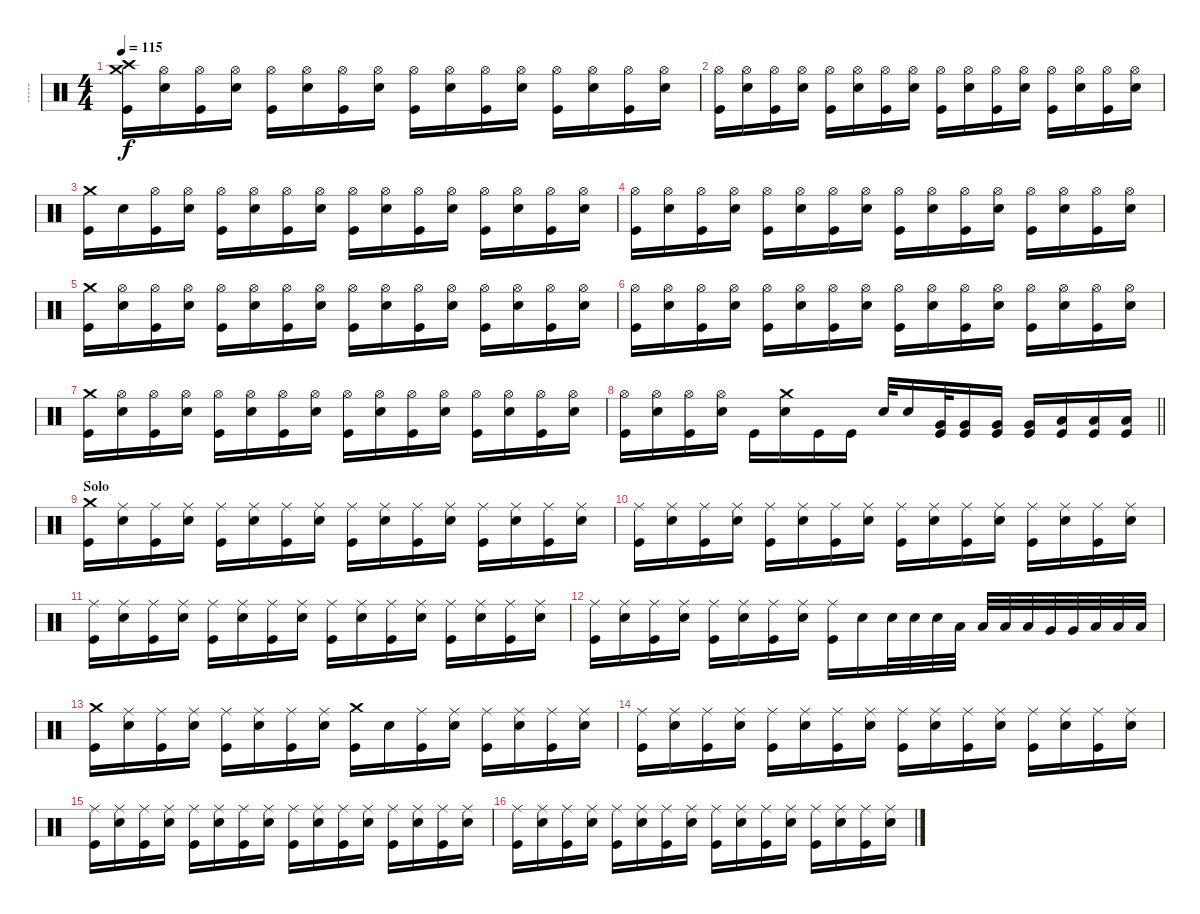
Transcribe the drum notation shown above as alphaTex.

\track ("-----" "-----") {instrument percussion}
\staff {score}
\articulation defaults
\ts (4 4)
\section ("" "")
\tempo 115
\clef neutral
\ks c
("Crash medium (hit)" "Crash high (hit)" "Kick (hit)").16{dy f} ("Hi-Hat (open)" "Electric Snare (hit)").16 ("Hi-Hat (open)" "Kick (hit)").16 ("Hi-Hat (open)" "Electric Snare (hit)").16 ("Hi-Hat (open)" "Kick (hit)").16 ("Hi-Hat (open)" "Electric Snare (hit)").16 ("Hi-Hat (open)" "Kick (hit)").16 ("Hi-Hat (open)" "Electric Snare (hit)").16 ("Hi-Hat (open)" "Kick (hit)").16 ("Hi-Hat (open)" "Electric Snare (hit)").16 ("Hi-Hat (open)" "Kick (hit)").16 ("Hi-Hat (open)" "Electric Snare (hit)").16 ("Hi-Hat (open)" "Kick (hit)").16 ("Hi-Hat (open)" "Electric Snare (hit)").16 ("Hi-Hat (open)" "Kick (hit)").16 ("Hi-Hat (open)" "Electric Snare (hit)").16 |
("Hi-Hat (open)" "Kick (hit)").16 ("Hi-Hat (open)" "Electric Snare (hit)").16 ("Hi-Hat (open)" "Kick (hit)").16 ("Hi-Hat (open)" "Electric Snare (hit)").16 ("Hi-Hat (open)" "Kick (hit)").16 ("Hi-Hat (open)" "Electric Snare (hit)").16 ("Hi-Hat (open)" "Kick (hit)").16 ("Hi-Hat (open)" "Electric Snare (hit)").16 ("Hi-Hat (open)" "Kick (hit)").16 ("Hi-Hat (open)" "Electric Snare (hit)").16 ("Hi-Hat (open)" "Kick (hit)").16 ("Hi-Hat (open)" "Electric Snare (hit)").16 ("Hi-Hat (open)" "Kick (hit)").16 ("Hi-Hat (open)" "Electric Snare (hit)").16 ("Hi-Hat (open)" "Kick (hit)").16 ("Hi-Hat (open)" "Electric Snare (hit)").16 |
("Crash medium (hit)" "Kick (hit)").16 "Electric Snare (hit)".16 ("Hi-Hat (open)" "Kick (hit)").16 ("Hi-Hat (open)" "Electric Snare (hit)").16 ("Hi-Hat (open)" "Kick (hit)").16 ("Hi-Hat (open)" "Electric Snare (hit)").16 ("Hi-Hat (open)" "Kick (hit)").16 ("Hi-Hat (open)" "Electric Snare (hit)").16 ("Hi-Hat (open)" "Kick (hit)").16 ("Hi-Hat (open)" "Electric Snare (hit)").16 ("Hi-Hat (open)" "Kick (hit)").16 ("Hi-Hat (open)" "Electric Snare (hit)").16 ("Hi-Hat (open)" "Kick (hit)").16 ("Hi-Hat (open)" "Electric Snare (hit)").16 ("Hi-Hat (open)" "Kick (hit)").16 ("Hi-Hat (open)" "Electric Snare (hit)").16 |
("Hi-Hat (open)" "Kick (hit)").16 ("Hi-Hat (open)" "Electric Snare (hit)").16 ("Hi-Hat (open)" "Kick (hit)").16 ("Hi-Hat (open)" "Electric Snare (hit)").16 ("Hi-Hat (open)" "Kick (hit)").16 ("Hi-Hat (open)" "Electric Snare (hit)").16 ("Hi-Hat (open)" "Kick (hit)").16 ("Hi-Hat (open)" "Electric Snare (hit)").16 ("Hi-Hat (open)" "Kick (hit)").16 ("Hi-Hat (open)" "Electric Snare (hit)").16 ("Hi-Hat (open)" "Kick (hit)").16 ("Hi-Hat (open)" "Electric Snare (hit)").16 ("Hi-Hat (open)" "Kick (hit)").16 ("Hi-Hat (open)" "Electric Snare (hit)").16 ("Hi-Hat (open)" "Kick (hit)").16 ("Hi-Hat (open)" "Electric Snare (hit)").16 |
("Crash medium (hit)" "Kick (hit)").16 ("Hi-Hat (open)" "Electric Snare (hit)").16 ("Hi-Hat (open)" "Kick (hit)").16 ("Hi-Hat (open)" "Electric Snare (hit)").16 ("Hi-Hat (open)" "Kick (hit)").16 ("Hi-Hat (open)" "Electric Snare (hit)").16 ("Hi-Hat (open)" "Kick (hit)").16 ("Hi-Hat (open)" "Electric Snare (hit)").16 ("Hi-Hat (open)" "Kick (hit)").16 ("Hi-Hat (open)" "Electric Snare (hit)").16 ("Hi-Hat (open)" "Kick (hit)").16 ("Hi-Hat (open)" "Electric Snare (hit)").16 ("Hi-Hat (open)" "Kick (hit)").16 ("Hi-Hat (open)" "Electric Snare (hit)").16 ("Hi-Hat (open)" "Kick (hit)").16 ("Hi-Hat (open)" "Electric Snare (hit)").16 |
("Hi-Hat (open)" "Kick (hit)").16 ("Hi-Hat (open)" "Electric Snare (hit)").16 ("Hi-Hat (open)" "Kick (hit)").16 ("Hi-Hat (open)" "Electric Snare (hit)").16 ("Hi-Hat (open)" "Kick (hit)").16 ("Hi-Hat (open)" "Electric Snare (hit)").16 ("Hi-Hat (open)" "Kick (hit)").16 ("Hi-Hat (open)" "Electric Snare (hit)").16 ("Hi-Hat (open)" "Kick (hit)").16 ("Hi-Hat (open)" "Electric Snare (hit)").16 ("Hi-Hat (open)" "Kick (hit)").16 ("Hi-Hat (open)" "Electric Snare (hit)").16 ("Hi-Hat (open)" "Kick (hit)").16 ("Hi-Hat (open)" "Electric Snare (hit)").16 ("Hi-Hat (open)" "Kick (hit)").16 ("Hi-Hat (open)" "Electric Snare (hit)").16 |
("Crash medium (hit)" "Kick (hit)").16 ("Hi-Hat (open)" "Electric Snare (hit)").16 ("Hi-Hat (open)" "Kick (hit)").16 ("Hi-Hat (open)" "Electric Snare (hit)").16 ("Hi-Hat (open)" "Kick (hit)").16 ("Hi-Hat (open)" "Electric Snare (hit)").16 ("Hi-Hat (open)" "Kick (hit)").16 ("Hi-Hat (open)" "Electric Snare (hit)").16 ("Hi-Hat (open)" "Kick (hit)").16 ("Hi-Hat (open)" "Electric Snare (hit)").16 ("Hi-Hat (open)" "Kick (hit)").16 ("Hi-Hat (open)" "Electric Snare (hit)").16 ("Hi-Hat (open)" "Kick (hit)").16 ("Hi-Hat (open)" "Electric Snare (hit)").16 ("Hi-Hat (open)" "Kick (hit)").16 ("Hi-Hat (open)" "Electric Snare (hit)").16 |
\barLineRight lightlight
("Hi-Hat (open)" "Kick (hit)").16 ("Hi-Hat (open)" "Electric Snare (hit)").16 ("Hi-Hat (open)" "Kick (hit)").16 ("Hi-Hat (open)" "Electric Snare (hit)").16 "Kick (hit)".16 ("Crash medium (hit)" "Electric Snare (hit)").16 "Kick (hit)".16 "Kick (hit)".16 "Electric Snare (hit)".32 "Electric Snare (hit)".16 ("Very Low Tom (hit)" "Kick (hit)").32 ("Very Low Tom (hit)" "Kick (hit)").16 ("Very Low Tom (hit)" "Kick (hit)").16 ("Very Low Tom (hit)" "Kick (hit)").16 ("Low Tom (hit)" "Kick (hit)").16 ("Low Tom (hit)" "Kick (hit)").16 ("Low Tom (hit)" "Kick (hit)").16 |
\section ("" "Solo")
("Crash medium (hit)" "Kick (hit)").16 ("Ride (middle)" "Electric Snare (hit)").16 ("Ride (middle)" "Kick (hit)").16 ("Ride (middle)" "Electric Snare (hit)").16 ("Ride (middle)" "Kick (hit)").16 ("Ride (middle)" "Electric Snare (hit)").16 ("Ride (middle)" "Kick (hit)").16 ("Ride (middle)" "Electric Snare (hit)").16 ("Ride (middle)" "Kick (hit)").16 ("Ride (middle)" "Electric Snare (hit)").16 ("Ride (middle)" "Kick (hit)").16 ("Ride (middle)" "Electric Snare (hit)").16 ("Ride (middle)" "Kick (hit)").16 ("Ride (middle)" "Electric Snare (hit)").16 ("Ride (middle)" "Kick (hit)").16 ("Ride (middle)" "Electric Snare (hit)").16 |
("Ride (middle)" "Kick (hit)").16 ("Ride (middle)" "Electric Snare (hit)").16 ("Ride (middle)" "Kick (hit)").16 ("Ride (middle)" "Electric Snare (hit)").16 ("Ride (middle)" "Kick (hit)").16 ("Ride (middle)" "Electric Snare (hit)").16 ("Ride (middle)" "Kick (hit)").16 ("Ride (middle)" "Electric Snare (hit)").16 ("Ride (middle)" "Kick (hit)").16 ("Ride (middle)" "Electric Snare (hit)").16 ("Ride (middle)" "Kick (hit)").16 ("Ride (middle)" "Electric Snare (hit)").16 ("Ride (middle)" "Kick (hit)").16 ("Ride (middle)" "Electric Snare (hit)").16 ("Ride (middle)" "Kick (hit)").16 ("Ride (middle)" "Electric Snare (hit)").16 |
("Ride (middle)" "Kick (hit)").16 ("Ride (middle)" "Electric Snare (hit)").16 ("Ride (middle)" "Kick (hit)").16 ("Ride (middle)" "Electric Snare (hit)").16 ("Ride (middle)" "Kick (hit)").16 ("Ride (middle)" "Electric Snare (hit)").16 ("Ride (middle)" "Kick (hit)").16 ("Ride (middle)" "Electric Snare (hit)").16 ("Ride (middle)" "Kick (hit)").16 ("Ride (middle)" "Electric Snare (hit)").16 ("Ride (middle)" "Kick (hit)").16 ("Ride (middle)" "Electric Snare (hit)").16 ("Ride (middle)" "Kick (hit)").16 ("Ride (middle)" "Electric Snare (hit)").16 ("Ride (middle)" "Kick (hit)").16 ("Ride (middle)" "Electric Snare (hit)").16 |
("Ride (middle)" "Kick (hit)").16 ("Ride (middle)" "Electric Snare (hit)").16 ("Ride (middle)" "Kick (hit)").16 ("Ride (middle)" "Electric Snare (hit)").16 ("Ride (middle)" "Kick (hit)").16 ("Ride (middle)" "Electric Snare (hit)").16 ("Ride (middle)" "Kick (hit)").16 ("Ride (middle)" "Electric Snare (hit)").16 ("Ride (middle)" "Kick (hit)").16 "Electric Snare (hit)".16 "Electric Snare (hit)".32 "Electric Snare (hit)".32 "Electric Snare (hit)".32 "Low Tom (hit)".32 "Low Tom (hit)".32 "Low Tom (hit)".32 "Low Tom (hit)".32 "Very Low Tom (hit)".32 "Very Low Tom (hit)".32 "Low Floor Tom (hit)".32 "Low Floor Tom (hit)".32 "Low Floor Tom (hit)".32 |
("Crash medium (hit)" "Kick (hit)").16 ("Ride (middle)" "Electric Snare (hit)").16 ("Ride (middle)" "Kick (hit)").16 ("Ride (middle)" "Electric Snare (hit)").16 ("Ride (middle)" "Kick (hit)").16 ("Ride (middle)" "Electric Snare (hit)").16 ("Ride (middle)" "Kick (hit)").16 ("Ride (middle)" "Electric Snare (hit)").16 ("Crash medium (hit)" "Kick (hit)").16 "Electric Snare (hit)".16 ("Ride (middle)" "Kick (hit)").16 ("Ride (middle)" "Electric Snare (hit)").16 ("Ride (middle)" "Kick (hit)").16 ("Ride (middle)" "Electric Snare (hit)").16 ("Ride (middle)" "Kick (hit)").16 ("Ride (middle)" "Electric Snare (hit)").16 |
("Ride (middle)" "Kick (hit)").16 ("Ride (middle)" "Electric Snare (hit)").16 ("Ride (middle)" "Kick (hit)").16 ("Ride (middle)" "Electric Snare (hit)").16 ("Ride (middle)" "Kick (hit)").16 ("Ride (middle)" "Electric Snare (hit)").16 ("Ride (middle)" "Kick (hit)").16 ("Ride (middle)" "Electric Snare (hit)").16 ("Ride (middle)" "Kick (hit)").16 ("Ride (middle)" "Electric Snare (hit)").16 ("Ride (middle)" "Kick (hit)").16 ("Ride (middle)" "Electric Snare (hit)").16 ("Ride (middle)" "Kick (hit)").16 ("Ride (middle)" "Electric Snare (hit)").16 ("Ride (middle)" "Kick (hit)").16 ("Ride (middle)" "Electric Snare (hit)").16 |
("Ride (middle)" "Kick (hit)").16 ("Ride (middle)" "Electric Snare (hit)").16 ("Ride (middle)" "Kick (hit)").16 ("Ride (middle)" "Electric Snare (hit)").16 ("Ride (middle)" "Kick (hit)").16 ("Ride (middle)" "Electric Snare (hit)").16 ("Ride (middle)" "Kick (hit)").16 ("Ride (middle)" "Electric Snare (hit)").16 ("Ride (middle)" "Kick (hit)").16 ("Ride (middle)" "Electric Snare (hit)").16 ("Ride (middle)" "Kick (hit)").16 ("Ride (middle)" "Electric Snare (hit)").16 ("Ride (middle)" "Kick (hit)").16 ("Ride (middle)" "Electric Snare (hit)").16 ("Ride (middle)" "Kick (hit)").16 ("Ride (middle)" "Electric Snare (hit)").16 |
("Ride (middle)" "Kick (hit)").16 ("Ride (middle)" "Electric Snare (hit)").16 ("Ride (middle)" "Kick (hit)").16 ("Ride (middle)" "Electric Snare (hit)").16 ("Ride (middle)" "Kick (hit)").16 ("Ride (middle)" "Electric Snare (hit)").16 ("Ride (middle)" "Kick (hit)").16 ("Ride (middle)" "Electric Snare (hit)").16 ("Ride (middle)" "Kick (hit)").16 ("Ride (middle)" "Electric Snare (hit)").16 ("Ride (middle)" "Kick (hit)").16 ("Ride (middle)" "Electric Snare (hit)").16 ("Ride (middle)" "Kick (hit)").16 ("Ride (middle)" "Electric Snare (hit)").16 ("Ride (middle)" "Kick (hit)").16 ("Ride (middle)" "Electric Snare (hit)").16
